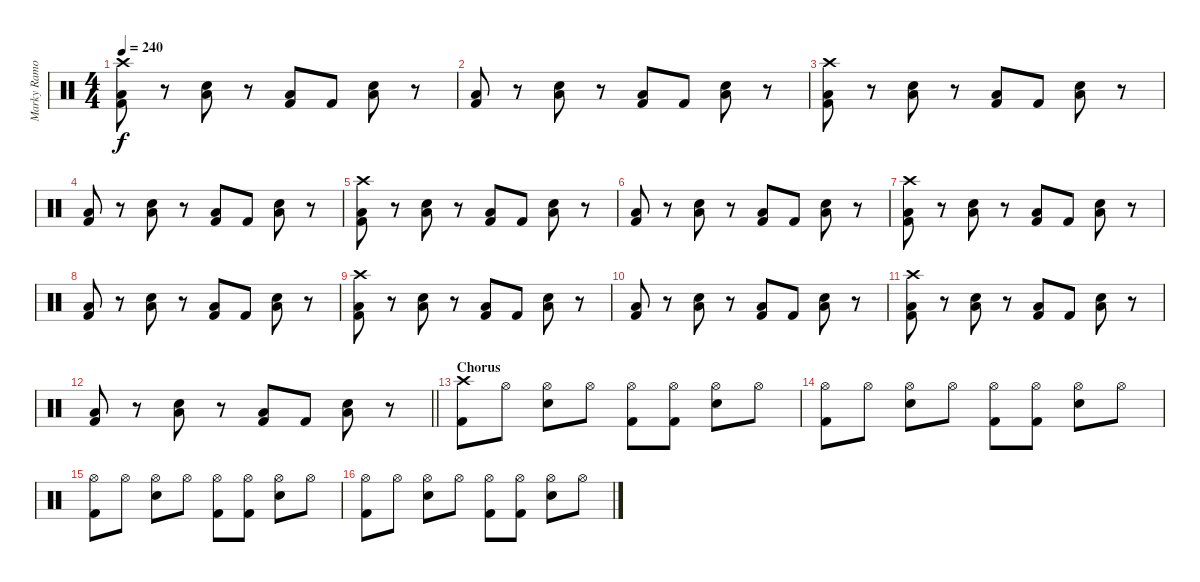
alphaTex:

\track ("Marky Ramone" "Marky Ramo") {instrument percussion}
\staff {score}
\articulation defaults
\ts (4 4)
\tempo 240
\clef neutral
\ks c
("Kick (hit) 2" "Low Floor Tom (hit)" "Crash high (hit)").8{dy f} r.8 ("Electric Snare (hit)" "Low Floor Tom (hit)").8 r.8 ("Kick (hit) 2" "Low Floor Tom (hit)").8 "Kick (hit) 2".8 ("Electric Snare (hit)" "Low Floor Tom (hit)").8 r.8 |
("Kick (hit) 2" "Low Floor Tom (hit)").8 r.8 ("Electric Snare (hit)" "Low Floor Tom (hit)").8 r.8 ("Kick (hit) 2" "Low Floor Tom (hit)").8 "Kick (hit) 2".8 ("Electric Snare (hit)" "Low Floor Tom (hit)").8 r.8 |
("Kick (hit) 2" "Low Floor Tom (hit)" "Crash high (hit)").8 r.8 ("Electric Snare (hit)" "Low Floor Tom (hit)").8 r.8 ("Kick (hit) 2" "Low Floor Tom (hit)").8 "Kick (hit) 2".8 ("Electric Snare (hit)" "Low Floor Tom (hit)").8 r.8 |
("Kick (hit) 2" "Low Floor Tom (hit)").8 r.8 ("Electric Snare (hit)" "Low Floor Tom (hit)").8 r.8 ("Kick (hit) 2" "Low Floor Tom (hit)").8 "Kick (hit) 2".8 ("Electric Snare (hit)" "Low Floor Tom (hit)").8 r.8 |
("Kick (hit) 2" "Low Floor Tom (hit)" "Crash high (hit)").8 r.8 ("Electric Snare (hit)" "Low Floor Tom (hit)").8 r.8 ("Kick (hit) 2" "Low Floor Tom (hit)").8 "Kick (hit) 2".8 ("Electric Snare (hit)" "Low Floor Tom (hit)").8 r.8 |
("Kick (hit) 2" "Low Floor Tom (hit)").8 r.8 ("Electric Snare (hit)" "Low Floor Tom (hit)").8 r.8 ("Kick (hit) 2" "Low Floor Tom (hit)").8 "Kick (hit) 2".8 ("Electric Snare (hit)" "Low Floor Tom (hit)").8 r.8 |
("Kick (hit) 2" "Low Floor Tom (hit)" "Crash high (hit)").8 r.8 ("Electric Snare (hit)" "Low Floor Tom (hit)").8 r.8 ("Kick (hit) 2" "Low Floor Tom (hit)").8 "Kick (hit) 2".8 ("Electric Snare (hit)" "Low Floor Tom (hit)").8 r.8 |
("Kick (hit) 2" "Low Floor Tom (hit)").8 r.8 ("Electric Snare (hit)" "Low Floor Tom (hit)").8 r.8 ("Kick (hit) 2" "Low Floor Tom (hit)").8 "Kick (hit) 2".8 ("Electric Snare (hit)" "Low Floor Tom (hit)").8 r.8 |
("Kick (hit) 2" "Low Floor Tom (hit)" "Crash high (hit)").8 r.8 ("Electric Snare (hit)" "Low Floor Tom (hit)").8 r.8 ("Kick (hit) 2" "Low Floor Tom (hit)").8 "Kick (hit) 2".8 ("Electric Snare (hit)" "Low Floor Tom (hit)").8 r.8 |
("Kick (hit) 2" "Low Floor Tom (hit)").8 r.8 ("Electric Snare (hit)" "Low Floor Tom (hit)").8 r.8 ("Kick (hit) 2" "Low Floor Tom (hit)").8 "Kick (hit) 2".8 ("Electric Snare (hit)" "Low Floor Tom (hit)").8 r.8 |
("Kick (hit) 2" "Low Floor Tom (hit)" "Crash high (hit)").8 r.8 ("Electric Snare (hit)" "Low Floor Tom (hit)").8 r.8 ("Kick (hit) 2" "Low Floor Tom (hit)").8 "Kick (hit) 2".8 ("Electric Snare (hit)" "Low Floor Tom (hit)").8 r.8 |
\barLineRight lightlight
("Kick (hit) 2" "Low Floor Tom (hit)").8 r.8 ("Electric Snare (hit)" "Low Floor Tom (hit)").8 r.8 ("Kick (hit) 2" "Low Floor Tom (hit)").8 "Kick (hit) 2".8 ("Electric Snare (hit)" "Low Floor Tom (hit)").8 r.8 |
\section ("" "Chorus")
("Kick (hit) 2" "Crash high (hit)").8 "Hi-Hat (open)".8 ("Electric Snare (hit)" "Hi-Hat (open)").8 "Hi-Hat (open)".8 ("Kick (hit) 2" "Hi-Hat (open)").8 ("Kick (hit) 2" "Hi-Hat (open)").8 ("Electric Snare (hit)" "Hi-Hat (open)").8 "Hi-Hat (open)".8 |
("Kick (hit) 2" "Hi-Hat (open)").8 "Hi-Hat (open)".8 ("Electric Snare (hit)" "Hi-Hat (open)").8 "Hi-Hat (open)".8 ("Kick (hit) 2" "Hi-Hat (open)").8 ("Kick (hit) 2" "Hi-Hat (open)").8 ("Electric Snare (hit)" "Hi-Hat (open)").8 "Hi-Hat (open)".8 |
("Kick (hit) 2" "Hi-Hat (open)").8 "Hi-Hat (open)".8 ("Electric Snare (hit)" "Hi-Hat (open)").8 "Hi-Hat (open)".8 ("Kick (hit) 2" "Hi-Hat (open)").8 ("Kick (hit) 2" "Hi-Hat (open)").8 ("Electric Snare (hit)" "Hi-Hat (open)").8 "Hi-Hat (open)".8 |
("Kick (hit) 2" "Hi-Hat (open)").8 "Hi-Hat (open)".8 ("Electric Snare (hit)" "Hi-Hat (open)").8 "Hi-Hat (open)".8 ("Kick (hit) 2" "Hi-Hat (open)").8 ("Kick (hit) 2" "Hi-Hat (open)").8 ("Electric Snare (hit)" "Hi-Hat (open)").8 "Hi-Hat (open)".8
